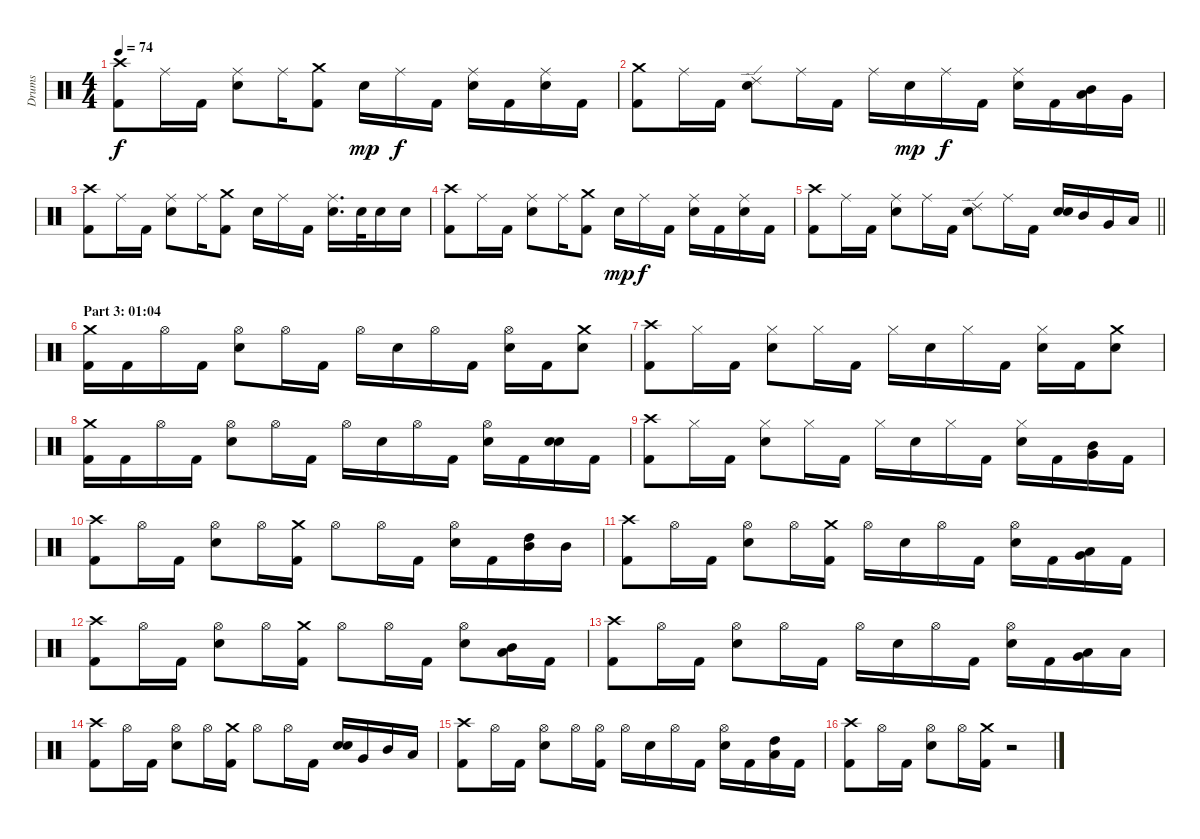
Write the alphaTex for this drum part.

\track ("Drums" "Drums") {instrument percussion}
\staff {score}
\articulation defaults
\ts (4 4)
\tempo 74
\clef neutral
\ks c
("Crash high (hit)" "Kick (hit) 2").8{dy f} "Ride (middle)".16 "Kick (hit) 2".16 ("Ride (middle)" "Electric Snare (hit)").8 "Ride (middle)".16 ("Crash medium (hit)" "Kick (hit) 2").8 "Electric Snare (hit)".16{dy mp} "Ride (middle)".16{dy f} "Kick (hit) 2".16 ("Ride (middle)" "Electric Snare (hit)").16 "Kick (hit) 2".16 ("Ride (middle)" "Electric Snare (hit)").16 "Kick (hit) 2".16 |
("Crash medium (hit)" "Kick (hit) 2").8 "Ride (middle)".16 "Kick (hit) 2".16 ("Ride (edge) 2" "Electric Snare (hit)").8 "Ride (middle)".16 "Kick (hit) 2".16 "Ride (middle)".16 "Electric Snare (hit)".16{dy mp} "Ride (middle)".16{dy f} "Kick (hit) 2".16 ("Ride (middle)" "Electric Snare (hit)").16 "Kick (hit) 2".16 ("Mid Tom (hit)" "Low Tom (hit)").16{bd 120} "Very Low Tom (hit)".16 |
("Crash high (hit)" "Kick (hit) 2").8 "Ride (middle)".16 "Kick (hit) 2".16 ("Ride (middle)" "Electric Snare (hit)").8 "Ride (middle)".16 ("Crash medium (hit)" "Kick (hit) 2").8 "Electric Snare (hit)".16 "Ride (middle)".16 "Kick (hit) 2".16 ("Ride (middle)" "Electric Snare (hit)").16{d} "Electric Snare (hit)".32 "Electric Snare (hit)".16 "Electric Snare (hit)".16 |
("Crash high (hit)" "Kick (hit) 2").8 "Ride (middle)".16 "Kick (hit) 2".16 ("Ride (middle)" "Electric Snare (hit)").8 "Ride (middle)".16 ("Crash medium (hit)" "Kick (hit) 2").8 "Electric Snare (hit)".16{dy mp} "Ride (middle)".16{dy f} "Kick (hit) 2".16 ("Ride (middle)" "Electric Snare (hit)").16 "Kick (hit) 2".16 ("Ride (middle)" "Electric Snare (hit)").16 "Kick (hit) 2".16 |
\barLineRight lightlight
("Crash high (hit)" "Kick (hit) 2").8 "Ride (middle)".16 "Kick (hit) 2".16 ("Ride (middle)" "Electric Snare (hit)").8 "Ride (middle)".16 "Kick (hit) 2".16 ("Ride (edge) 2" "Electric Snare (hit)").8 "Ride (middle)".16 "Kick (hit) 2".16 ("Electric Snare (hit)" "Electric Snare (hit)").16{bd 120} "Mid Tom (hit)".16 "Very Low Tom (hit)".16 "Low Tom (hit)".16 |
\section ("" "Part 3: 01:04")
("Crash medium (hit)" "Kick (hit) 2").16 "Kick (hit) 2".16 "Hi-Hat (open)".16 "Kick (hit) 2".16 ("Hi-Hat (open)" "Electric Snare (hit)").8 "Hi-Hat (open)".16 "Kick (hit) 2".16 "Hi-Hat (open)".16 "Electric Snare (hit)".16 "Hi-Hat (open)".16 "Kick (hit) 2".16 ("Hi-Hat (open)" "Electric Snare (hit)").16 "Kick (hit) 2".16 ("Crash medium (hit)" "Electric Snare (hit)").8 |
("Crash high (hit)" "Kick (hit) 2").8 "Hi-Hat (closed)".16 "Kick (hit) 2".16 ("Hi-Hat (closed)" "Electric Snare (hit)").8 "Hi-Hat (closed)".16 "Kick (hit) 2".16 "Hi-Hat (closed)".16 "Electric Snare (hit)".16 "Hi-Hat (closed)".16 "Kick (hit) 2".16 ("Hi-Hat (closed)" "Electric Snare (hit)").16 "Kick (hit) 2".16 ("Crash medium (hit)" "Electric Snare (hit)").8 |
("Crash medium (hit)" "Kick (hit) 2").16 "Kick (hit) 2".16 "Hi-Hat (open)".16 "Kick (hit) 2".16 ("Hi-Hat (open)" "Electric Snare (hit)").8 "Hi-Hat (open)".16 "Kick (hit) 2".16 "Hi-Hat (open)".16 "Electric Snare (hit)".16 "Hi-Hat (open)".16 "Kick (hit) 2".16 ("Hi-Hat (open)" "Electric Snare (hit)").16 "Kick (hit) 2".16 ("Electric Snare (hit)" "Electric Snare (hit)").16{bd 120} "Kick (hit) 2".16 |
("Crash high (hit)" "Kick (hit) 2").8 "Hi-Hat (closed)".16 "Kick (hit) 2".16 ("Hi-Hat (closed)" "Electric Snare (hit)").8 "Hi-Hat (closed)".16 "Kick (hit) 2".16 "Hi-Hat (closed)".16 "Electric Snare (hit)".16 "Hi-Hat (closed)".16 "Kick (hit) 2".16 ("Hi-Hat (closed)" "Electric Snare (hit)").16 "Kick (hit) 2".16 ("Mid Tom (hit)" "Very Low Tom (hit)").16{bd 60} "Kick (hit) 2".16 |
("Crash high (hit)" "Kick (hit) 2").8 "Hi-Hat (open)".16 "Kick (hit) 2".16 ("Hi-Hat (open)" "Electric Snare (hit)").8 "Hi-Hat (open)".16 ("Crash medium (hit)" "Kick (hit) 2").16 "Hi-Hat (open)".8 "Hi-Hat (open)".16 "Kick (hit) 2".16 ("Hi-Hat (open)" "Electric Snare (hit)").16 "Kick (hit) 2".16 ("Mid Tom (hit)" "High Tom (hit)").16{bd 60} "Mid Tom (hit)".16 |
("Crash high (hit)" "Kick (hit) 2").8 "Hi-Hat (open)".16 "Kick (hit) 2".16 ("Hi-Hat (open)" "Electric Snare (hit)").8 "Hi-Hat (open)".16 ("Crash medium (hit)" "Kick (hit) 2").16 "Hi-Hat (open)".16 "Electric Snare (hit)".16 "Hi-Hat (open)".16 "Kick (hit) 2".16 ("Hi-Hat (open)" "Electric Snare (hit)").16 "Kick (hit) 2".16 ("Low Tom (hit)" "Very Low Tom (hit)").16{bd 60} "Kick (hit) 2".16 |
("Crash high (hit)" "Kick (hit) 2").8 "Hi-Hat (open)".16 "Kick (hit) 2".16 ("Hi-Hat (open)" "Electric Snare (hit)").8 "Hi-Hat (open)".16 ("Crash medium (hit)" "Kick (hit) 2").16 "Hi-Hat (open)".8 "Hi-Hat (open)".16 "Kick (hit) 2".16 ("Hi-Hat (open)" "Electric Snare (hit)").8 ("Mid Tom (hit)" "Low Tom (hit)").16{bd 60} "Kick (hit) 2".16 |
("Crash high (hit)" "Kick (hit) 2").8 "Hi-Hat (open)".16 "Kick (hit) 2".16 ("Hi-Hat (open)" "Electric Snare (hit)").8 "Hi-Hat (open)".16 "Kick (hit) 2".16 "Hi-Hat (open)".16 "Electric Snare (hit)".16 "Hi-Hat (open)".16 "Kick (hit) 2".16 ("Hi-Hat (open)" "Electric Snare (hit)").16 "Kick (hit) 2".16 ("Low Tom (hit)" "Very Low Tom (hit)").16{bd 60} "Low Floor Tom (hit)".16 |
("Crash high (hit)" "Kick (hit) 2").8 "Hi-Hat (open)".16 "Kick (hit) 2".16 ("Hi-Hat (open)" "Electric Snare (hit)").8 "Hi-Hat (open)".16 ("Crash medium (hit)" "Kick (hit) 2").16 "Hi-Hat (open)".8 "Hi-Hat (open)".16 "Kick (hit) 2".16 ("Electric Snare (hit)" "Electric Snare (hit)").16{bd 120} "Very Low Tom (hit)".16 "Mid Tom (hit)".16 "Low Tom (hit)".16 |
("Crash high (hit)" "Kick (hit) 2").8 "Hi-Hat (open)".16 "Kick (hit) 2".16 ("Hi-Hat (open)" "Electric Snare (hit)").8 "Hi-Hat (open)".16 ("Hi-Hat (open)" "Kick (hit) 2").16 "Hi-Hat (open)".16 "Electric Snare (hit)".16 "Hi-Hat (open)".16 "Kick (hit) 2".16 ("Hi-Hat (open)" "Electric Snare (hit)").16 "Kick (hit) 2".16 ("High Tom (hit)" "Low Tom (hit)").16{bd 60} "Kick (hit) 2".16 |
("Crash high (hit)" "Kick (hit) 2").8 "Hi-Hat (open)".16 "Kick (hit) 2".16 ("Hi-Hat (open)" "Electric Snare (hit)").8 "Hi-Hat (open)".16 ("Crash medium (hit)" "Kick (hit) 2").16 r.2
